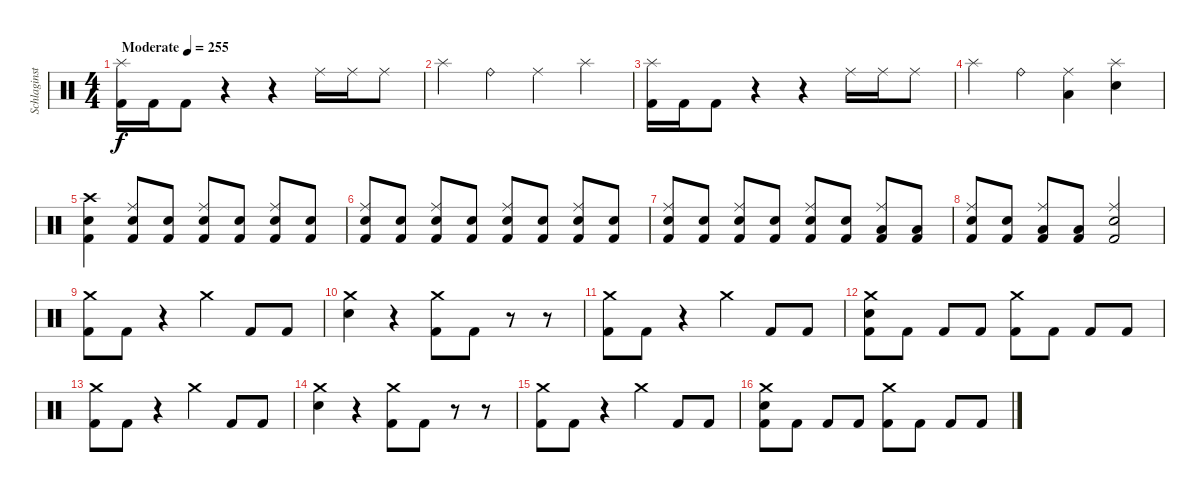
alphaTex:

\track ("Schlaginstrumente - Auswahl" "Schlaginst") {instrument percussion}
\staff {score}
\articulation defaults
\ts (4 4)
\tempo (255 "Moderate")
\clef neutral
\ks c
("Splash (hit)" "Kick (hit) 2").16{dy f} "Kick (hit) 2".16 "Kick (hit) 2".8 r.4 r.4 "Ride (middle)".16 "Ride (middle)".16 "Ride (middle)".8 |
"Splash (hit)".4 "Ride (bell)".4 "Ride (middle)".4 "Splash (hit)".4 |
("Splash (hit)" "Kick (hit) 2").16 "Kick (hit) 2".16 "Kick (hit) 2".8 r.4 r.4 "Ride (middle)".16 "Ride (middle)".16 "Ride (middle)".8 |
"Splash (hit)".4 "Ride (bell)".4 ("Ride (middle)" "Low Tom (hit)").4 ("Splash (hit)" "Electric Snare (hit)").4 |
("Crash high (hit)" "Electric Snare (hit)" "Kick (hit) 2").4 ("Ride (middle)" "Electric Snare (hit)" "Kick (hit) 2").8 ("Electric Snare (hit)" "Kick (hit) 2").8 ("Ride (middle)" "Electric Snare (hit)" "Kick (hit) 2").8 ("Electric Snare (hit)" "Kick (hit) 2").8 ("Ride (middle)" "Electric Snare (hit)" "Kick (hit) 2").8 ("Electric Snare (hit)" "Kick (hit) 2").8 |
("Ride (middle)" "Electric Snare (hit)" "Kick (hit) 2").8 ("Electric Snare (hit)" "Kick (hit) 2").8 ("Ride (middle)" "Electric Snare (hit)" "Kick (hit) 2").8 ("Electric Snare (hit)" "Kick (hit) 2").8 ("Ride (middle)" "Electric Snare (hit)" "Kick (hit) 2").8 ("Electric Snare (hit)" "Kick (hit) 2").8 ("Ride (middle)" "Electric Snare (hit)" "Kick (hit) 2").8 ("Electric Snare (hit)" "Kick (hit) 2").8 |
("Ride (middle)" "Electric Snare (hit)" "Kick (hit) 2").8 ("Electric Snare (hit)" "Kick (hit) 2").8 ("Ride (middle)" "Electric Snare (hit)" "Kick (hit) 2").8 ("Electric Snare (hit)" "Kick (hit) 2").8 ("Ride (middle)" "Electric Snare (hit)" "Kick (hit) 2").8 ("Electric Snare (hit)" "Kick (hit) 2").8 ("Ride (middle)" "Low Tom (hit)" "Kick (hit) 2").8 ("Low Tom (hit)" "Kick (hit) 2").8 |
("Ride (middle)" "Electric Snare (hit)" "Kick (hit) 2").8 ("Electric Snare (hit)" "Kick (hit) 2").8 ("Ride (middle)" "Low Tom (hit)" "Kick (hit) 2").8 ("Low Tom (hit)" "Kick (hit) 2").8 ("Ride (middle)" "Electric Snare (hit)" "Kick (hit) 2").2 |
("Crash medium (hit)" "Kick (hit) 2").8 "Kick (hit) 2".8 r.4 "Crash medium (hit)".4 "Kick (hit) 2".8 "Kick (hit) 2".8 |
("Crash medium (hit)" "Electric Snare (hit)").4 r.4 ("Crash medium (hit)" "Kick (hit) 2").8 "Kick (hit) 2".8 r.8 r.8 |
("Crash medium (hit)" "Kick (hit) 2").8 "Kick (hit) 2".8 r.4 "Crash medium (hit)".4 "Kick (hit) 2".8 "Kick (hit) 2".8 |
("Crash medium (hit)" "Electric Snare (hit)" "Kick (hit) 2").8 "Kick (hit) 2".8 "Kick (hit) 2".8 "Kick (hit) 2".8 ("Crash medium (hit)" "Kick (hit) 2").8 "Kick (hit) 2".8 "Kick (hit) 2".8 "Kick (hit) 2".8 |
("Crash medium (hit)" "Kick (hit) 2").8 "Kick (hit) 2".8 r.4 "Crash medium (hit)".4 "Kick (hit) 2".8 "Kick (hit) 2".8 |
("Crash medium (hit)" "Electric Snare (hit)").4 r.4 ("Crash medium (hit)" "Kick (hit) 2").8 "Kick (hit) 2".8 r.8 r.8 |
("Crash medium (hit)" "Kick (hit) 2").8 "Kick (hit) 2".8 r.4 "Crash medium (hit)".4 "Kick (hit) 2".8 "Kick (hit) 2".8 |
("Crash medium (hit)" "Electric Snare (hit)" "Kick (hit) 2").8 "Kick (hit) 2".8 "Kick (hit) 2".8 "Kick (hit) 2".8 ("Crash medium (hit)" "Kick (hit) 2").8 "Kick (hit) 2".8 "Kick (hit) 2".8 "Kick (hit) 2".8
